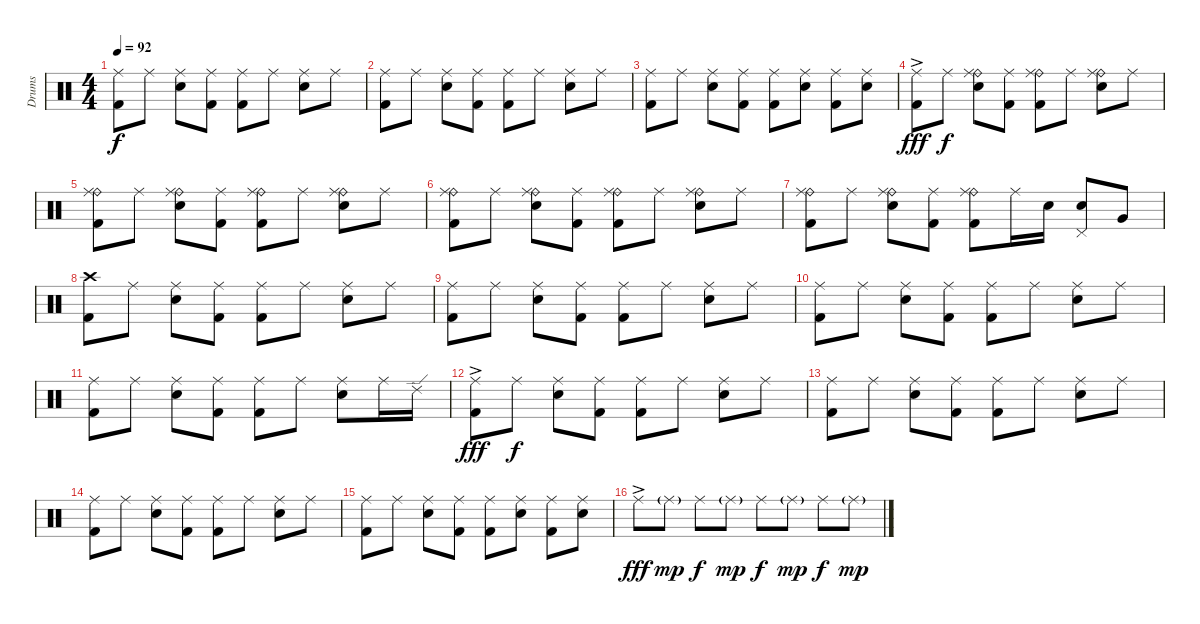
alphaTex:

\track ("Drums" "Drums") {instrument percussion}
\staff {score}
\articulation defaults
\ts (4 4)
\tempo 92
\clef neutral
\ks c
("Ride (middle)" "Kick (hit) 2").8{dy f} "Ride (middle)".8 ("Ride (middle)" "Snare (hit) 2").8 ("Ride (middle)" "Kick (hit) 2").8 ("Ride (middle)" "Kick (hit) 2").8 "Ride (middle)".8 ("Ride (middle)" "Snare (hit) 2").8 "Ride (middle)".8 |
("Ride (middle)" "Kick (hit) 2").8 "Ride (middle)".8 ("Ride (middle)" "Snare (hit) 2").8 ("Ride (middle)" "Kick (hit) 2").8 ("Ride (middle)" "Kick (hit) 2").8 "Ride (middle)".8 ("Ride (middle)" "Snare (hit) 2").8 "Ride (middle)".8 |
("Ride (middle)" "Kick (hit) 2").8 "Ride (middle)".8 ("Ride (middle)" "Snare (hit) 2").8 ("Ride (middle)" "Kick (hit) 2").8 ("Ride (middle)" "Kick (hit) 2").8 ("Ride (middle)" "Snare (hit) 2").8 ("Ride (middle)" "Kick (hit) 2").8 ("Ride (middle)" "Snare (hit) 2").8 |
("Ride (middle)"{ac} "Kick (hit) 2").8{dy fff} "Ride (middle)".8{dy f} ("Ride (bell)" "Ride (middle)" "Snare (hit) 2").8 ("Ride (middle)" "Kick (hit) 2").8 ("Ride (bell)" "Ride (middle)" "Kick (hit) 2").8 "Ride (middle)".8 ("Ride (bell)" "Ride (middle)" "Snare (hit) 2").8 "Ride (middle)".8 |
("Ride (bell)" "Ride (middle)" "Kick (hit) 2").8 "Ride (middle)".8 ("Ride (bell)" "Ride (middle)" "Snare (hit) 2").8 ("Ride (middle)" "Kick (hit) 2").8 ("Ride (bell)" "Ride (middle)" "Kick (hit) 2").8 "Ride (middle)".8 ("Ride (bell)" "Ride (middle)" "Snare (hit) 2").8 "Ride (middle)".8 |
("Ride (bell)" "Ride (middle)" "Kick (hit) 2").8 "Ride (middle)".8 ("Ride (bell)" "Ride (middle)" "Snare (hit) 2").8 ("Ride (middle)" "Kick (hit) 2").8 ("Ride (bell)" "Ride (middle)" "Kick (hit) 2").8 "Ride (middle)".8 ("Ride (bell)" "Ride (middle)" "Snare (hit) 2").8 "Ride (middle)".8 |
("Ride (bell)" "Ride (middle)" "Kick (hit) 2").8 "Ride (middle)".8 ("Ride (bell)" "Ride (middle)" "Snare (hit) 2").8 ("Ride (middle)" "Kick (hit) 2").8 ("Ride (bell)" "Ride (middle)" "Kick (hit) 2").8 "Ride (middle)".16 "Snare (hit) 2".16 ("Pedal Hi-Hat (hit)" "Snare (hit) 2").8 "Very Low Tom (hit)".8 |
("Crash high (hit)" "Kick (hit) 2").8 "Ride (middle)".8 ("Ride (middle)" "Snare (hit) 2").8 ("Ride (middle)" "Kick (hit) 2").8 ("Ride (middle)" "Kick (hit) 2").8 "Ride (middle)".8 ("Ride (middle)" "Snare (hit) 2").8 "Ride (middle)".8 |
("Ride (middle)" "Kick (hit) 2").8 "Ride (middle)".8 ("Ride (middle)" "Snare (hit) 2").8 ("Ride (middle)" "Kick (hit) 2").8 ("Ride (middle)" "Kick (hit) 2").8 "Ride (middle)".8 ("Ride (middle)" "Snare (hit) 2").8 "Ride (middle)".8 |
("Ride (middle)" "Kick (hit) 2").8 "Ride (middle)".8 ("Ride (middle)" "Snare (hit) 2").8 ("Ride (middle)" "Kick (hit) 2").8 ("Ride (middle)" "Kick (hit) 2").8 "Ride (middle)".8 ("Ride (middle)" "Snare (hit) 2").8 "Ride (middle)".8 |
("Ride (middle)" "Kick (hit) 2").8 "Ride (middle)".8 ("Ride (middle)" "Snare (hit) 2").8 ("Ride (middle)" "Kick (hit) 2").8 ("Ride (middle)" "Kick (hit) 2").8 "Ride (middle)".8 ("Ride (middle)" "Snare (hit) 2").8 "Ride (middle)".16 "Ride (edge) 2".16 |
("Ride (middle)"{ac} "Kick (hit) 2").8{dy fff} "Ride (middle)".8{dy f} ("Ride (middle)" "Snare (hit) 2").8 ("Ride (middle)" "Kick (hit) 2").8 ("Ride (middle)" "Kick (hit) 2").8 "Ride (middle)".8 ("Ride (middle)" "Snare (hit) 2").8 "Ride (middle)".8 |
("Ride (middle)" "Kick (hit) 2").8 "Ride (middle)".8 ("Ride (middle)" "Snare (hit) 2").8 ("Ride (middle)" "Kick (hit) 2").8 ("Ride (middle)" "Kick (hit) 2").8 "Ride (middle)".8 ("Ride (middle)" "Snare (hit) 2").8 "Ride (middle)".8 |
("Ride (middle)" "Kick (hit) 2").8 "Ride (middle)".8 ("Ride (middle)" "Snare (hit) 2").8 ("Ride (middle)" "Kick (hit) 2").8 ("Ride (middle)" "Kick (hit) 2").8 "Ride (middle)".8 ("Ride (middle)" "Snare (hit) 2").8 "Ride (middle)".8 |
("Ride (middle)" "Kick (hit) 2").8 "Ride (middle)".8 ("Ride (middle)" "Snare (hit) 2").8 ("Ride (middle)" "Kick (hit) 2").8 ("Ride (middle)" "Kick (hit) 2").8 ("Ride (middle)" "Snare (hit) 2").8 ("Ride (middle)" "Kick (hit) 2").8 ("Ride (middle)" "Snare (hit) 2").8 |
"Ride (middle)"{ac}.8{dy fff} "Ride (middle)"{g}.8{dy mp} "Ride (middle)".8{dy f} "Ride (middle)"{g}.8{dy mp} "Ride (middle)".8{dy f} "Ride (middle)"{g}.8{dy mp} "Ride (middle)".8{dy f} "Ride (middle)"{g}.8{dy mp}
